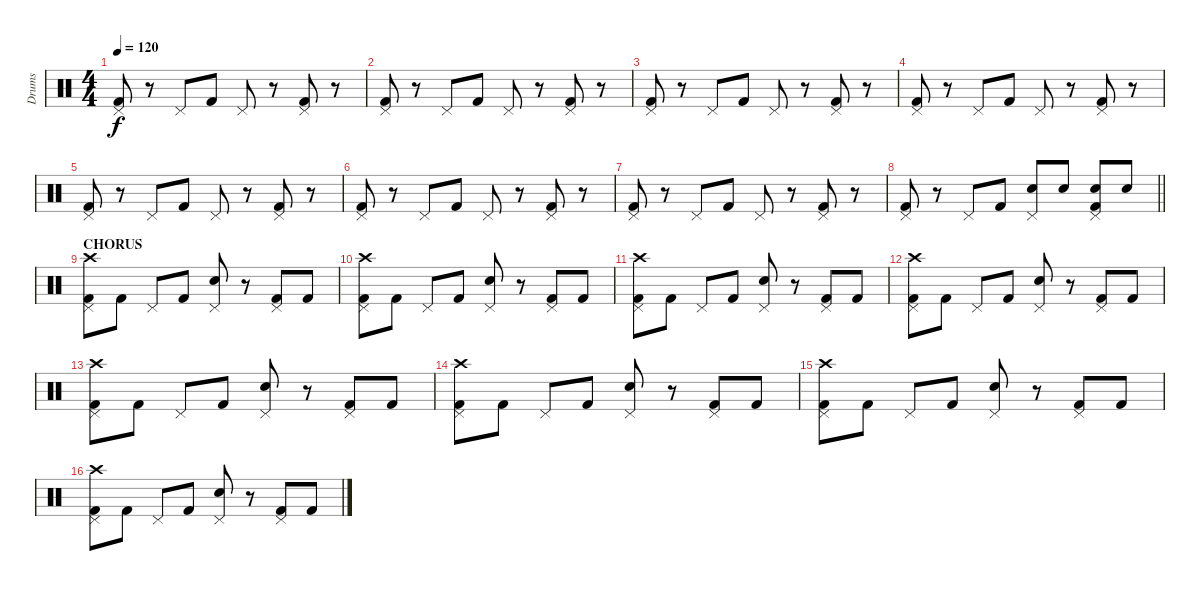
\track ("Drums" "Drums") {instrument percussion}
\staff {score}
\articulation defaults
\ts (4 4)
\tempo 120
\clef neutral
\ks c
("Pedal Hi-Hat (hit)" "Kick (hit) 2").8{dy f} r.8 "Pedal Hi-Hat (hit)".8 "Kick (hit) 2".8 "Pedal Hi-Hat (hit)".8 r.8 ("Pedal Hi-Hat (hit)" "Kick (hit) 2").8 r.8 |
("Pedal Hi-Hat (hit)" "Kick (hit) 2").8 r.8 "Pedal Hi-Hat (hit)".8 "Kick (hit) 2".8 "Pedal Hi-Hat (hit)".8 r.8 ("Pedal Hi-Hat (hit)" "Kick (hit) 2").8 r.8 |
("Pedal Hi-Hat (hit)" "Kick (hit) 2").8 r.8 "Pedal Hi-Hat (hit)".8 "Kick (hit) 2".8 "Pedal Hi-Hat (hit)".8 r.8 ("Pedal Hi-Hat (hit)" "Kick (hit) 2").8 r.8 |
("Pedal Hi-Hat (hit)" "Kick (hit) 2").8 r.8 "Pedal Hi-Hat (hit)".8 "Kick (hit) 2".8 "Pedal Hi-Hat (hit)".8 r.8 ("Pedal Hi-Hat (hit)" "Kick (hit) 2").8 r.8 |
("Pedal Hi-Hat (hit)" "Kick (hit) 2").8 r.8 "Pedal Hi-Hat (hit)".8 "Kick (hit) 2".8 "Pedal Hi-Hat (hit)".8 r.8 ("Pedal Hi-Hat (hit)" "Kick (hit) 2").8 r.8 |
("Pedal Hi-Hat (hit)" "Kick (hit) 2").8 r.8 "Pedal Hi-Hat (hit)".8 "Kick (hit) 2".8 "Pedal Hi-Hat (hit)".8 r.8 ("Pedal Hi-Hat (hit)" "Kick (hit) 2").8 r.8 |
("Pedal Hi-Hat (hit)" "Kick (hit) 2").8 r.8 "Pedal Hi-Hat (hit)".8 "Kick (hit) 2".8 "Pedal Hi-Hat (hit)".8 r.8 ("Pedal Hi-Hat (hit)" "Kick (hit) 2").8 r.8 |
\barLineRight lightlight
("Pedal Hi-Hat (hit)" "Kick (hit) 2").8 r.8 "Pedal Hi-Hat (hit)".8 "Kick (hit) 2".8 ("Pedal Hi-Hat (hit)" "Snare (hit) 2").8 "Snare (hit) 2".8 ("Pedal Hi-Hat (hit)" "Snare (hit) 2" "Kick (hit) 2").8 "Snare (hit) 2".8 |
\section ("" "CHORUS")
("Pedal Hi-Hat (hit)" "Crash high (hit)" "Kick (hit) 2").8 "Kick (hit) 2".8 "Pedal Hi-Hat (hit)".8 "Kick (hit) 2".8 ("Pedal Hi-Hat (hit)" "Snare (hit) 2").8 r.8 ("Pedal Hi-Hat (hit)" "Kick (hit) 2").8 "Kick (hit) 2".8 |
("Pedal Hi-Hat (hit)" "Crash high (hit)" "Kick (hit) 2").8 "Kick (hit) 2".8 "Pedal Hi-Hat (hit)".8 "Kick (hit) 2".8 ("Pedal Hi-Hat (hit)" "Snare (hit) 2").8 r.8 ("Pedal Hi-Hat (hit)" "Kick (hit) 2").8 "Kick (hit) 2".8 |
("Pedal Hi-Hat (hit)" "Crash high (hit)" "Kick (hit) 2").8 "Kick (hit) 2".8 "Pedal Hi-Hat (hit)".8 "Kick (hit) 2".8 ("Pedal Hi-Hat (hit)" "Snare (hit) 2").8 r.8 ("Pedal Hi-Hat (hit)" "Kick (hit) 2").8 "Kick (hit) 2".8 |
("Pedal Hi-Hat (hit)" "Crash high (hit)" "Kick (hit) 2").8 "Kick (hit) 2".8 "Pedal Hi-Hat (hit)".8 "Kick (hit) 2".8 ("Pedal Hi-Hat (hit)" "Snare (hit) 2").8 r.8 ("Pedal Hi-Hat (hit)" "Kick (hit) 2").8 "Kick (hit) 2".8 |
("Pedal Hi-Hat (hit)" "Crash high (hit)" "Kick (hit) 2").8 "Kick (hit) 2".8 "Pedal Hi-Hat (hit)".8 "Kick (hit) 2".8 ("Pedal Hi-Hat (hit)" "Snare (hit) 2").8 r.8 ("Pedal Hi-Hat (hit)" "Kick (hit) 2").8 "Kick (hit) 2".8 |
("Pedal Hi-Hat (hit)" "Crash high (hit)" "Kick (hit) 2").8 "Kick (hit) 2".8 "Pedal Hi-Hat (hit)".8 "Kick (hit) 2".8 ("Pedal Hi-Hat (hit)" "Snare (hit) 2").8 r.8 ("Pedal Hi-Hat (hit)" "Kick (hit) 2").8 "Kick (hit) 2".8 |
("Pedal Hi-Hat (hit)" "Crash high (hit)" "Kick (hit) 2").8 "Kick (hit) 2".8 "Pedal Hi-Hat (hit)".8 "Kick (hit) 2".8 ("Pedal Hi-Hat (hit)" "Snare (hit) 2").8 r.8 ("Pedal Hi-Hat (hit)" "Kick (hit) 2").8 "Kick (hit) 2".8 |
("Pedal Hi-Hat (hit)" "Crash high (hit)" "Kick (hit) 2").8 "Kick (hit) 2".8 "Pedal Hi-Hat (hit)".8 "Kick (hit) 2".8 ("Pedal Hi-Hat (hit)" "Snare (hit) 2").8 r.8 ("Pedal Hi-Hat (hit)" "Kick (hit) 2").8 "Kick (hit) 2".8
